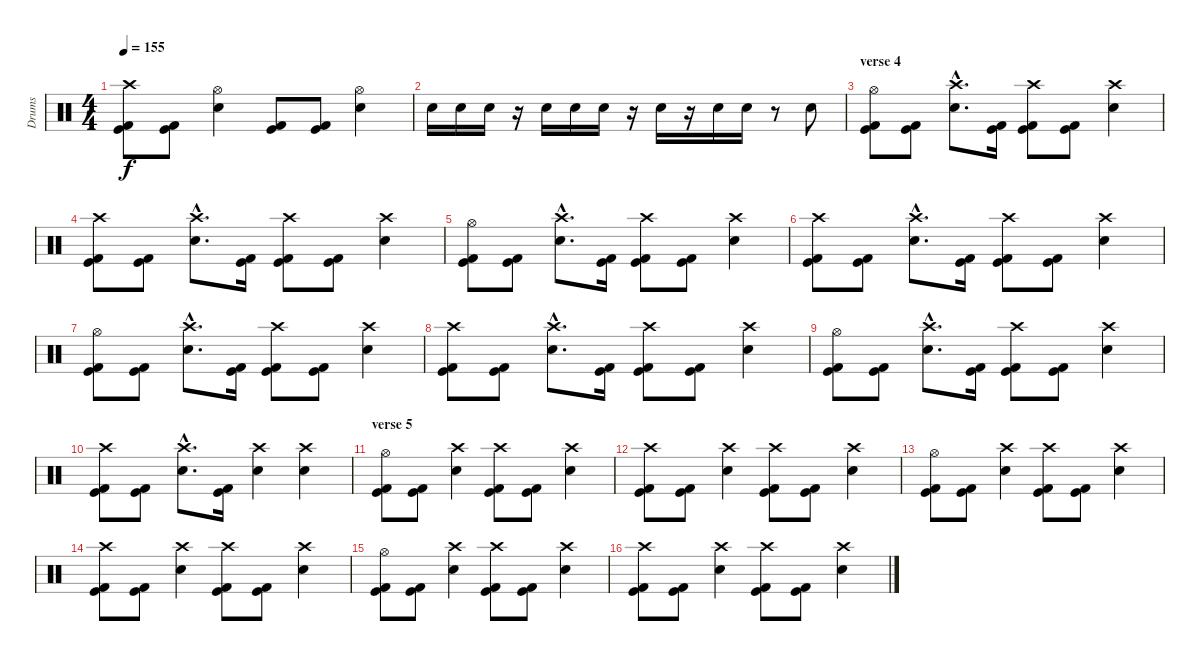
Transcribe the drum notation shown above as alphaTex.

\track ("Drums" "Drums") {instrument percussion}
\staff {score}
\articulation defaults
\ts (4 4)
\tempo 155
\clef neutral
\ks c
("Crash high (hit)" "Kick (hit)" "Kick (hit) 2").8{dy f} ("Kick (hit)" "Kick (hit) 2").8 ("Hi-Hat (open)" "Electric Snare (hit)").4 ("Kick (hit)" "Kick (hit) 2").8 ("Kick (hit)" "Kick (hit) 2").8 ("Hi-Hat (open)" "Electric Snare (hit)").4 |
"Electric Snare (hit)".16 "Electric Snare (hit)".16 "Electric Snare (hit)".16 r.16 "Electric Snare (hit)".16 "Electric Snare (hit)".16 "Electric Snare (hit)".16 r.16 "Electric Snare (hit)".16 r.16 "Electric Snare (hit)".16 "Electric Snare (hit)".16 r.8 "Electric Snare (hit)".8 |
\section ("" "verse 4")
("Hi-Hat (open)" "Kick (hit)" "Kick (hit) 2").8 ("Kick (hit)" "Kick (hit) 2").8 ("Crash high (hit)"{hac} "Electric Snare (hit)"{hac}).8{d} ("Kick (hit)" "Kick (hit) 2").16 ("Crash high (hit)" "Kick (hit)" "Kick (hit) 2").8 ("Kick (hit)" "Kick (hit) 2").8 ("Crash high (hit)" "Electric Snare (hit)").4 |
("Crash high (hit)" "Kick (hit)" "Kick (hit) 2").8 ("Kick (hit)" "Kick (hit) 2").8 ("Crash high (hit)"{hac} "Electric Snare (hit)"{hac}).8{d} ("Kick (hit)" "Kick (hit) 2").16 ("Crash high (hit)" "Kick (hit)" "Kick (hit) 2").8 ("Kick (hit)" "Kick (hit) 2").8 ("Crash high (hit)" "Electric Snare (hit)").4 |
("Hi-Hat (open)" "Kick (hit)" "Kick (hit) 2").8 ("Kick (hit)" "Kick (hit) 2").8 ("Crash high (hit)"{hac} "Electric Snare (hit)"{hac}).8{d} ("Kick (hit)" "Kick (hit) 2").16 ("Crash high (hit)" "Kick (hit)" "Kick (hit) 2").8 ("Kick (hit)" "Kick (hit) 2").8 ("Crash high (hit)" "Electric Snare (hit)").4 |
("Crash high (hit)" "Kick (hit)" "Kick (hit) 2").8 ("Kick (hit)" "Kick (hit) 2").8 ("Crash high (hit)"{hac} "Electric Snare (hit)"{hac}).8{d} ("Kick (hit)" "Kick (hit) 2").16 ("Crash high (hit)" "Kick (hit)" "Kick (hit) 2").8 ("Kick (hit)" "Kick (hit) 2").8 ("Crash high (hit)" "Electric Snare (hit)").4 |
("Hi-Hat (open)" "Kick (hit)" "Kick (hit) 2").8 ("Kick (hit)" "Kick (hit) 2").8 ("Crash high (hit)"{hac} "Electric Snare (hit)"{hac}).8{d} ("Kick (hit)" "Kick (hit) 2").16 ("Crash high (hit)" "Kick (hit)" "Kick (hit) 2").8 ("Kick (hit)" "Kick (hit) 2").8 ("Crash high (hit)" "Electric Snare (hit)").4 |
("Crash high (hit)" "Kick (hit)" "Kick (hit) 2").8 ("Kick (hit)" "Kick (hit) 2").8 ("Crash high (hit)"{hac} "Electric Snare (hit)"{hac}).8{d} ("Kick (hit)" "Kick (hit) 2").16 ("Crash high (hit)" "Kick (hit)" "Kick (hit) 2").8 ("Kick (hit)" "Kick (hit) 2").8 ("Crash high (hit)" "Electric Snare (hit)").4 |
("Hi-Hat (open)" "Kick (hit)" "Kick (hit) 2").8 ("Kick (hit)" "Kick (hit) 2").8 ("Crash high (hit)"{hac} "Electric Snare (hit)"{hac}).8{d} ("Kick (hit)" "Kick (hit) 2").16 ("Crash high (hit)" "Kick (hit)" "Kick (hit) 2").8 ("Kick (hit)" "Kick (hit) 2").8 ("Crash high (hit)" "Electric Snare (hit)").4 |
("Crash high (hit)" "Kick (hit)" "Kick (hit) 2").8 ("Kick (hit)" "Kick (hit) 2").8 ("Crash high (hit)"{hac} "Electric Snare (hit)"{hac}).8{d} ("Kick (hit)" "Kick (hit) 2").16 ("Crash high (hit)" "Electric Snare (hit)").4 ("Crash high (hit)" "Electric Snare (hit)").4 |
\section ("" "verse 5")
("Hi-Hat (open)" "Kick (hit)" "Kick (hit) 2").8 ("Kick (hit)" "Kick (hit) 2").8 ("Crash high (hit)" "Electric Snare (hit)").4 ("Crash high (hit)" "Kick (hit)" "Kick (hit) 2").8 ("Kick (hit)" "Kick (hit) 2").8 ("Crash high (hit)" "Electric Snare (hit)").4 |
("Crash high (hit)" "Kick (hit)" "Kick (hit) 2").8 ("Kick (hit)" "Kick (hit) 2").8 ("Crash high (hit)" "Electric Snare (hit)").4 ("Crash high (hit)" "Kick (hit)" "Kick (hit) 2").8 ("Kick (hit)" "Kick (hit) 2").8 ("Crash high (hit)" "Electric Snare (hit)").4 |
("Hi-Hat (open)" "Kick (hit)" "Kick (hit) 2").8 ("Kick (hit)" "Kick (hit) 2").8 ("Crash high (hit)" "Electric Snare (hit)").4 ("Crash high (hit)" "Kick (hit)" "Kick (hit) 2").8 ("Kick (hit)" "Kick (hit) 2").8 ("Crash high (hit)" "Electric Snare (hit)").4 |
("Crash high (hit)" "Kick (hit)" "Kick (hit) 2").8 ("Kick (hit)" "Kick (hit) 2").8 ("Crash high (hit)" "Electric Snare (hit)").4 ("Crash high (hit)" "Kick (hit)" "Kick (hit) 2").8 ("Kick (hit)" "Kick (hit) 2").8 ("Crash high (hit)" "Electric Snare (hit)").4 |
("Hi-Hat (open)" "Kick (hit)" "Kick (hit) 2").8 ("Kick (hit)" "Kick (hit) 2").8 ("Crash high (hit)" "Electric Snare (hit)").4 ("Crash high (hit)" "Kick (hit)" "Kick (hit) 2").8 ("Kick (hit)" "Kick (hit) 2").8 ("Crash high (hit)" "Electric Snare (hit)").4 |
("Crash high (hit)" "Kick (hit)" "Kick (hit) 2").8 ("Kick (hit)" "Kick (hit) 2").8 ("Crash high (hit)" "Electric Snare (hit)").4 ("Crash high (hit)" "Kick (hit)" "Kick (hit) 2").8 ("Kick (hit)" "Kick (hit) 2").8 ("Crash high (hit)" "Electric Snare (hit)").4
